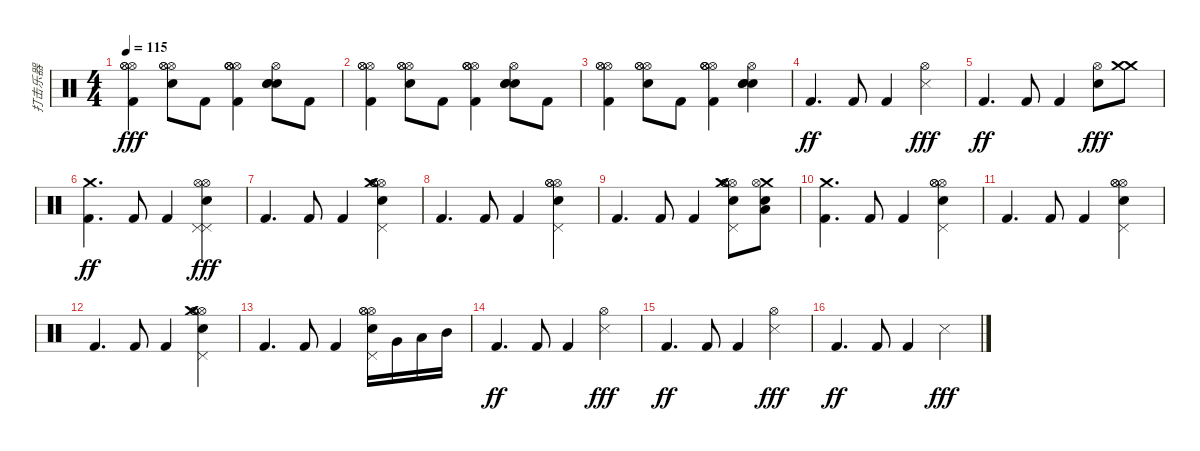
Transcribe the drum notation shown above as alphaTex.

\track ("打击乐器" "打击乐器") {instrument percussion}
\staff {score}
\articulation defaults
\ts (4 4)
\tempo 115
\clef neutral
\ks c
("Hi-Hat (open)" "Hi-Hat (open)" "Hi-Hat (open)" "Kick (hit) 2").4{dy fff} ("Hi-Hat (open)" "Hi-Hat (open)" "Hi-Hat (open)" "Electric Snare (hit)").8 "Kick (hit) 2".8 ("Hi-Hat (open)" "Hi-Hat (open)" "Hi-Hat (open)" "Hi-Hat (open)" "Kick (hit) 2").4 ("Electric Snare (hit)" "Electric Snare (hit)" "Electric Snare (hit)" "Hi-Hat (open)").8 "Kick (hit) 2".8 |
("Hi-Hat (open)" "Hi-Hat (open)" "Hi-Hat (open)" "Kick (hit) 2").4 ("Hi-Hat (open)" "Hi-Hat (open)" "Hi-Hat (open)" "Electric Snare (hit)").8 "Kick (hit) 2".8 ("Hi-Hat (open)" "Hi-Hat (open)" "Hi-Hat (open)" "Hi-Hat (open)" "Kick (hit) 2").4 ("Electric Snare (hit)" "Electric Snare (hit)" "Electric Snare (hit)" "Hi-Hat (open)").8 "Kick (hit) 2".8 |
("Hi-Hat (open)" "Hi-Hat (open)" "Hi-Hat (open)" "Kick (hit) 2").4 ("Hi-Hat (open)" "Hi-Hat (open)" "Hi-Hat (open)" "Electric Snare (hit)").8 "Kick (hit) 2".8 ("Hi-Hat (open)" "Hi-Hat (open)" "Hi-Hat (open)" "Hi-Hat (open)" "Kick (hit) 2").4 ("Electric Snare (hit)" "Electric Snare (hit)" "Electric Snare (hit)" "Hi-Hat (open)").4 |
"Kick (hit) 2".4{d dy ff} "Kick (hit) 2".8 "Kick (hit) 2".4 ("Snare (side stick) 3" "Hi-Hat (open)").4{dy fff} |
"Kick (hit) 2".4{d dy ff} "Kick (hit) 2".8 "Kick (hit) 2".4 ("Electric Snare (hit)" "Hi-Hat (open)").8{dy fff} ("Crash medium (hit)" "Crash medium (hit)").8 |
("Crash medium (hit)" "Kick (hit) 2").4{d dy ff} "Kick (hit) 2".8 "Kick (hit) 2".4 ("Pedal Hi-Hat (hit)" "Electric Snare (hit)" "Hi-Hat (open)" "Pedal Hi-Hat (hit)" "Hi-Hat (open)").4{dy fff} |
"Kick (hit) 2".4{d} "Kick (hit) 2".8 "Kick (hit) 2".4 ("Hi-Hat (open)" "Hi-Hat (open)" "Hi-Hat (open)" "Electric Snare (hit)" "Pedal Hi-Hat (hit)" "Crash medium (hit)").4 |
"Kick (hit) 2".4{d} "Kick (hit) 2".8 "Kick (hit) 2".4 ("Hi-Hat (open)" "Hi-Hat (open)" "Hi-Hat (open)" "Electric Snare (hit)" "Pedal Hi-Hat (hit)").4 |
"Kick (hit) 2".4{d} "Kick (hit) 2".8 "Kick (hit) 2".4 ("Hi-Hat (open)" "Hi-Hat (open)" "Hi-Hat (open)" "Electric Snare (hit)" "Pedal Hi-Hat (hit)" "Crash medium (hit)").8 ("Crash medium (hit)" "Hi-Hat (open)" "Low Tom (hit)" "Electric Snare (hit)").8 |
("Crash medium (hit)" "Kick (hit) 2").4{d} "Kick (hit) 2".8 "Kick (hit) 2".4 ("Hi-Hat (open)" "Hi-Hat (open)" "Hi-Hat (open)" "Electric Snare (hit)" "Pedal Hi-Hat (hit)").4 |
"Kick (hit) 2".4{d} "Kick (hit) 2".8 "Kick (hit) 2".4 ("Hi-Hat (open)" "Hi-Hat (open)" "Hi-Hat (open)" "Electric Snare (hit)" "Pedal Hi-Hat (hit)").4 |
"Kick (hit) 2".4{d} "Kick (hit) 2".8 "Kick (hit) 2".4 ("Hi-Hat (open)" "Hi-Hat (open)" "Hi-Hat (open)" "Electric Snare (hit)" "Pedal Hi-Hat (hit)" "Crash medium (hit)").4 |
"Kick (hit) 2".4{d} "Kick (hit) 2".8 "Kick (hit) 2".4 ("Hi-Hat (open)" "Hi-Hat (open)" "Hi-Hat (open)" "Electric Snare (hit)" "Pedal Hi-Hat (hit)").16 "Very Low Tom (hit)".16 "Low Tom (hit)".16 "Mid Tom (hit)".16 |
"Kick (hit) 2".4{d dy ff} "Kick (hit) 2".8 "Kick (hit) 2".4 ("Snare (side stick) 3" "Hi-Hat (open)").4{dy fff} |
"Kick (hit) 2".4{d dy ff} "Kick (hit) 2".8 "Kick (hit) 2".4 ("Snare (side stick) 3" "Hi-Hat (open)").4{dy fff} |
"Kick (hit) 2".4{d dy ff} "Kick (hit) 2".8 "Kick (hit) 2".4 "Snare (side stick) 3".4{dy fff}
